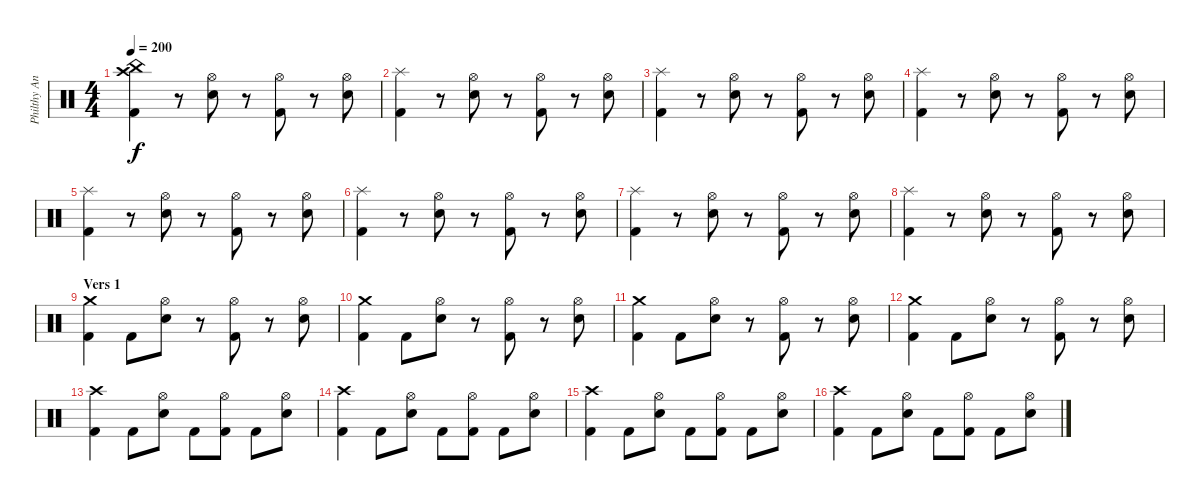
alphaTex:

\track ("Philthy Animal Taylor" "Philthy An") {instrument percussion}
\staff {score}
\articulation defaults
\ts (4 4)
\tempo 200
\clef neutral
\ks c
("Crash high (hit)" "China (hit)" "Kick (hit) 2").4{dy f} r.8 ("Hi-Hat (open)" "Snare (hit) 2").8 r.8 ("Hi-Hat (open)" "Kick (hit) 2").8 r.8 ("Hi-Hat (open)" "Snare (hit) 2").8 |
("Splash (hit)" "Kick (hit) 2").4 r.8 ("Hi-Hat (open)" "Snare (hit) 2").8 r.8 ("Hi-Hat (open)" "Kick (hit) 2").8 r.8 ("Hi-Hat (open)" "Snare (hit) 2").8 |
("Splash (hit)" "Kick (hit) 2").4 r.8 ("Hi-Hat (open)" "Snare (hit) 2").8 r.8 ("Hi-Hat (open)" "Kick (hit) 2").8 r.8 ("Hi-Hat (open)" "Snare (hit) 2").8 |
("Splash (hit)" "Kick (hit) 2").4 r.8 ("Hi-Hat (open)" "Snare (hit) 2").8 r.8 ("Hi-Hat (open)" "Kick (hit) 2").8 r.8 ("Hi-Hat (open)" "Snare (hit) 2").8 |
("Splash (hit)" "Kick (hit) 2").4 r.8 ("Hi-Hat (open)" "Snare (hit) 2").8 r.8 ("Hi-Hat (open)" "Kick (hit) 2").8 r.8 ("Hi-Hat (open)" "Snare (hit) 2").8 |
("Splash (hit)" "Kick (hit) 2").4 r.8 ("Hi-Hat (open)" "Snare (hit) 2").8 r.8 ("Hi-Hat (open)" "Kick (hit) 2").8 r.8 ("Hi-Hat (open)" "Snare (hit) 2").8 |
("Splash (hit)" "Kick (hit) 2").4 r.8 ("Hi-Hat (open)" "Snare (hit) 2").8 r.8 ("Hi-Hat (open)" "Kick (hit) 2").8 r.8 ("Hi-Hat (open)" "Snare (hit) 2").8 |
("Splash (hit)" "Kick (hit) 2").4 r.8 ("Hi-Hat (open)" "Snare (hit) 2").8 r.8 ("Hi-Hat (open)" "Kick (hit) 2").8 r.8 ("Hi-Hat (open)" "Snare (hit) 2").8 |
\section ("" "Vers 1")
("Crash medium (hit)" "Kick (hit) 2").4 "Kick (hit) 2".8 ("Hi-Hat (open)" "Snare (hit) 2").8 r.8 ("Hi-Hat (open)" "Kick (hit) 2").8 r.8 ("Hi-Hat (open)" "Snare (hit) 2").8 |
("Crash medium (hit)" "Kick (hit) 2").4 "Kick (hit) 2".8 ("Hi-Hat (open)" "Snare (hit) 2").8 r.8 ("Hi-Hat (open)" "Kick (hit) 2").8 r.8 ("Hi-Hat (open)" "Snare (hit) 2").8 |
("Crash medium (hit)" "Kick (hit) 2").4 "Kick (hit) 2".8 ("Hi-Hat (open)" "Snare (hit) 2").8 r.8 ("Hi-Hat (open)" "Kick (hit) 2").8 r.8 ("Hi-Hat (open)" "Snare (hit) 2").8 |
("Crash medium (hit)" "Kick (hit) 2").4 "Kick (hit) 2".8 ("Hi-Hat (open)" "Snare (hit) 2").8 r.8 ("Hi-Hat (open)" "Kick (hit) 2").8 r.8 ("Hi-Hat (open)" "Snare (hit) 2").8 |
("Crash high (hit)" "Kick (hit) 2").4 "Kick (hit) 2".8 ("Hi-Hat (open)" "Snare (hit) 2").8 "Kick (hit) 2".8 ("Hi-Hat (open)" "Kick (hit) 2").8 "Kick (hit) 2".8 ("Hi-Hat (open)" "Snare (hit) 2").8 |
("Crash high (hit)" "Kick (hit) 2").4 "Kick (hit) 2".8 ("Hi-Hat (open)" "Snare (hit) 2").8 "Kick (hit) 2".8 ("Hi-Hat (open)" "Kick (hit) 2").8 "Kick (hit) 2".8 ("Hi-Hat (open)" "Snare (hit) 2").8 |
("Crash high (hit)" "Kick (hit) 2").4 "Kick (hit) 2".8 ("Hi-Hat (open)" "Snare (hit) 2").8 "Kick (hit) 2".8 ("Hi-Hat (open)" "Kick (hit) 2").8 "Kick (hit) 2".8 ("Hi-Hat (open)" "Snare (hit) 2").8 |
("Crash high (hit)" "Kick (hit) 2").4 "Kick (hit) 2".8 ("Hi-Hat (open)" "Snare (hit) 2").8 "Kick (hit) 2".8 ("Hi-Hat (open)" "Kick (hit) 2").8 "Kick (hit) 2".8 ("Hi-Hat (open)" "Snare (hit) 2").8
